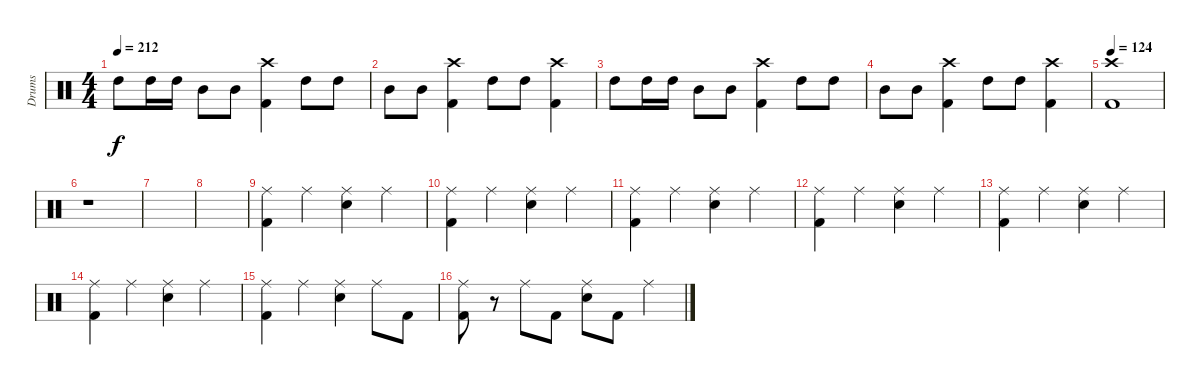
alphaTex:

\track ("Drums" "Drums") {instrument percussion}
\staff {score}
\articulation defaults
\ts (4 4)
\tempo 212
\clef neutral
\ks c "High Tom (hit)".8{dy f} "High Tom (hit)".16 "High Tom (hit)".16 "Mid Tom (hit)".8 "Mid Tom (hit)".8
("Crash high (hit)" "Kick (hit) 2").4 "High Tom (hit)".8 "High Tom (hit)".8 |
"Mid Tom (hit)".8 "Mid Tom (hit)".8 ("Crash high (hit)" "Kick (hit) 2").4 "High Tom (hit)".8 "High Tom (hit)".8 ("Crash high (hit)" "Kick (hit) 2").4 |
"High Tom (hit)".8 "High Tom (hit)".16 "High Tom (hit)".16 "Mid Tom (hit)".8 "Mid Tom (hit)".8 ("Crash high (hit)" "Kick (hit) 2").4 "High Tom (hit)".8 "High Tom (hit)".8 |
"Mid Tom (hit)".8 "Mid Tom (hit)".8 ("Crash high (hit)" "Kick (hit) 2").4 "High Tom (hit)".8 "High Tom (hit)".8 ("Crash high (hit)" "Kick (hit) 2").4 |
\tempo 124
("Crash high (hit)" "Kick (hit) 2").1 |
r.1 |
|
|
("Kick (hit) 2" "Ride (middle)").4 "Ride (middle)".4 ("Snare (hit) 2" "Ride (middle)").4 "Ride (middle)".4 |
("Kick (hit) 2" "Ride (middle)").4 "Ride (middle)".4 ("Snare (hit) 2" "Ride (middle)").4 "Ride (middle)".4 |
("Kick (hit) 2" "Ride (middle)").4 "Ride (middle)".4 ("Snare (hit) 2" "Ride (middle)").4 "Ride (middle)".4 |
("Kick (hit) 2" "Ride (middle)").4 "Ride (middle)".4 ("Snare (hit) 2" "Ride (middle)").4 "Ride (middle)".4 |
("Kick (hit) 2" "Ride (middle)").4 "Ride (middle)".4 ("Snare (hit) 2" "Ride (middle)").4 "Ride (middle)".4 |
("Kick (hit) 2" "Ride (middle)").4 "Ride (middle)".4 ("Snare (hit) 2" "Ride (middle)").4 "Ride (middle)".4 |
("Kick (hit) 2" "Ride (middle)").4 "Ride (middle)".4 ("Snare (hit) 2" "Ride (middle)").4 "Ride (middle)".8 "Kick (hit) 2".8 |
("Kick (hit) 2" "Ride (middle)").8 r.8 "Ride (middle)".8 "Kick (hit) 2".8 ("Snare (hit) 2" "Ride (middle)").8 "Kick (hit) 2".8 "Ride (middle)".4
